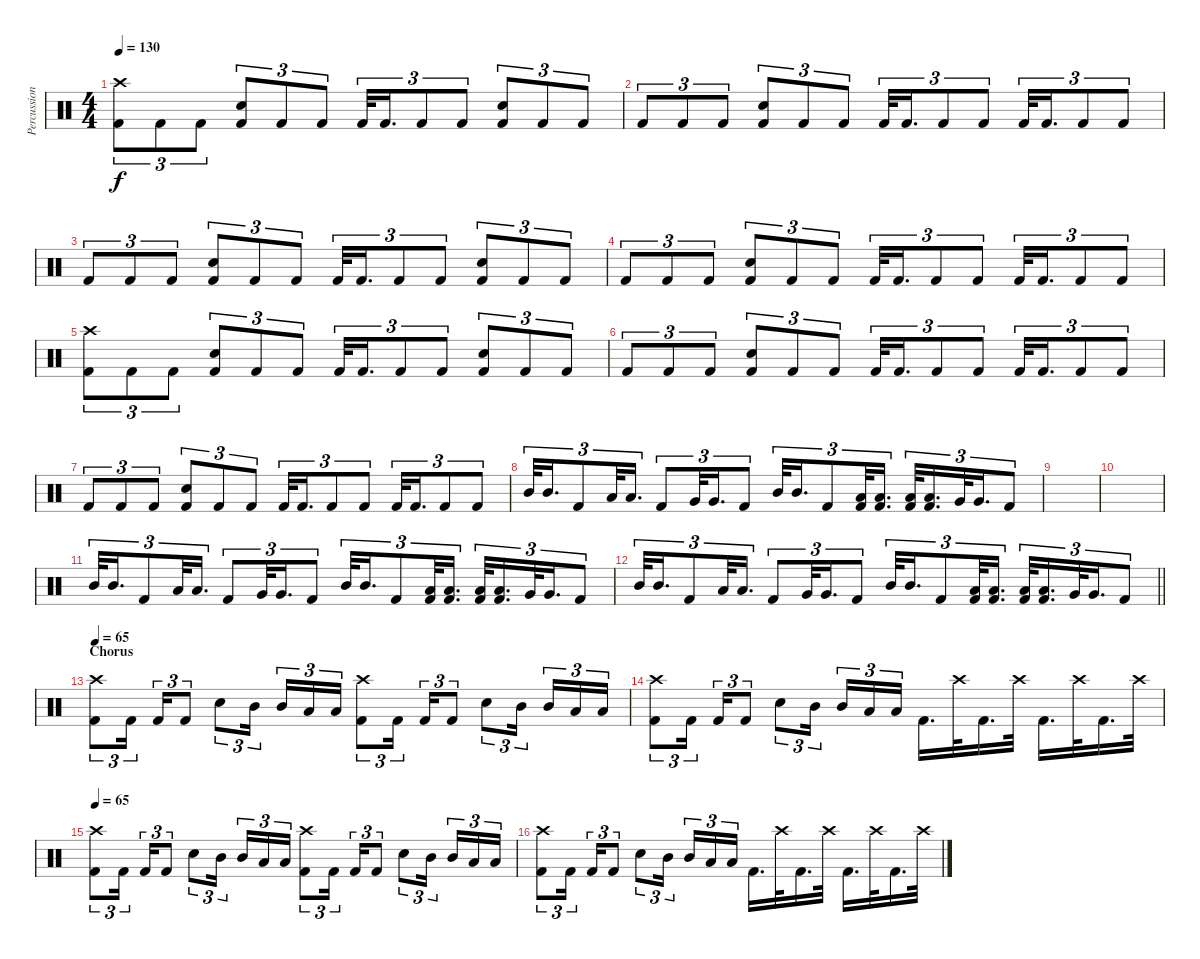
\track ("Percussions" "Percussion") {instrument percussion}
\staff {score}
\articulation defaults
\ts (4 4)
\tempo 130
\clef neutral
\ks c
("Crash high (hit)" "Kick (hit) 2").8{tu (3 2) dy f} "Kick (hit) 2".8{tu (3 2)} "Kick (hit) 2".8{tu (3 2)} ("Electric Snare (hit)" "Kick (hit) 2").8{tu (3 2)} "Kick (hit) 2".8{tu (3 2)} "Kick (hit) 2".8{tu (3 2)} "Kick (hit) 2".32{tu (3 2)} "Kick (hit) 2".16{d tu (3 2)} "Kick (hit) 2".8{tu (3 2)} "Kick (hit) 2".8{tu (3 2)} ("Electric Snare (hit)" "Kick (hit) 2").8{tu (3 2)} "Kick (hit) 2".8{tu (3 2)} "Kick (hit) 2".8{tu (3 2)} |
"Kick (hit) 2".8{tu (3 2)} "Kick (hit) 2".8{tu (3 2)} "Kick (hit) 2".8{tu (3 2)} ("Electric Snare (hit)" "Kick (hit) 2").8{tu (3 2)} "Kick (hit) 2".8{tu (3 2)} "Kick (hit) 2".8{tu (3 2)} "Kick (hit) 2".32{tu (3 2)} "Kick (hit) 2".16{d tu (3 2)} "Kick (hit) 2".8{tu (3 2)} "Kick (hit) 2".8{tu (3 2)} "Kick (hit) 2".32{tu (3 2)} "Kick (hit) 2".16{d tu (3 2)} "Kick (hit) 2".8{tu (3 2)} "Kick (hit) 2".8{tu (3 2)} |
"Kick (hit) 2".8{tu (3 2)} "Kick (hit) 2".8{tu (3 2)} "Kick (hit) 2".8{tu (3 2)} ("Electric Snare (hit)" "Kick (hit) 2").8{tu (3 2)} "Kick (hit) 2".8{tu (3 2)} "Kick (hit) 2".8{tu (3 2)} "Kick (hit) 2".32{tu (3 2)} "Kick (hit) 2".16{d tu (3 2)} "Kick (hit) 2".8{tu (3 2)} "Kick (hit) 2".8{tu (3 2)} ("Electric Snare (hit)" "Kick (hit) 2").8{tu (3 2)} "Kick (hit) 2".8{tu (3 2)} "Kick (hit) 2".8{tu (3 2)} |
"Kick (hit) 2".8{tu (3 2)} "Kick (hit) 2".8{tu (3 2)} "Kick (hit) 2".8{tu (3 2)} ("Electric Snare (hit)" "Kick (hit) 2").8{tu (3 2)} "Kick (hit) 2".8{tu (3 2)} "Kick (hit) 2".8{tu (3 2)} "Kick (hit) 2".32{tu (3 2)} "Kick (hit) 2".16{d tu (3 2)} "Kick (hit) 2".8{tu (3 2)} "Kick (hit) 2".8{tu (3 2)} "Kick (hit) 2".32{tu (3 2)} "Kick (hit) 2".16{d tu (3 2)} "Kick (hit) 2".8{tu (3 2)} "Kick (hit) 2".8{tu (3 2)} |
("Crash high (hit)" "Kick (hit) 2").8{tu (3 2)} "Kick (hit) 2".8{tu (3 2)} "Kick (hit) 2".8{tu (3 2)} ("Electric Snare (hit)" "Kick (hit) 2").8{tu (3 2)} "Kick (hit) 2".8{tu (3 2)} "Kick (hit) 2".8{tu (3 2)} "Kick (hit) 2".32{tu (3 2)} "Kick (hit) 2".16{d tu (3 2)} "Kick (hit) 2".8{tu (3 2)} "Kick (hit) 2".8{tu (3 2)} ("Electric Snare (hit)" "Kick (hit) 2").8{tu (3 2)} "Kick (hit) 2".8{tu (3 2)} "Kick (hit) 2".8{tu (3 2)} |
"Kick (hit) 2".8{tu (3 2)} "Kick (hit) 2".8{tu (3 2)} "Kick (hit) 2".8{tu (3 2)} ("Electric Snare (hit)" "Kick (hit) 2").8{tu (3 2)} "Kick (hit) 2".8{tu (3 2)} "Kick (hit) 2".8{tu (3 2)} "Kick (hit) 2".32{tu (3 2)} "Kick (hit) 2".16{d tu (3 2)} "Kick (hit) 2".8{tu (3 2)} "Kick (hit) 2".8{tu (3 2)} "Kick (hit) 2".32{tu (3 2)} "Kick (hit) 2".16{d tu (3 2)} "Kick (hit) 2".8{tu (3 2)} "Kick (hit) 2".8{tu (3 2)} |
"Kick (hit) 2".8{tu (3 2)} "Kick (hit) 2".8{tu (3 2)} "Kick (hit) 2".8{tu (3 2)} ("Electric Snare (hit)" "Kick (hit) 2").8{tu (3 2)} "Kick (hit) 2".8{tu (3 2)} "Kick (hit) 2".8{tu (3 2)} "Kick (hit) 2".32{tu (3 2)} "Kick (hit) 2".16{d tu (3 2)} "Kick (hit) 2".8{tu (3 2)} "Kick (hit) 2".8{tu (3 2)} "Kick (hit) 2".32{tu (3 2)} "Kick (hit) 2".16{d tu (3 2)} "Kick (hit) 2".8{tu (3 2)} "Kick (hit) 2".8{tu (3 2)} |
"Mid Tom (hit)".32{tu (3 2)} "Mid Tom (hit)".16{d tu (3 2)} "Kick (hit) 2".8{tu (3 2)} "Low Tom (hit)".32{tu (3 2)} "Low Tom (hit)".16{d tu (3 2)} "Kick (hit) 2".8{tu (3 2)} "Very Low Tom (hit)".32{tu (3 2)} "Very Low Tom (hit)".16{d tu (3 2)} "Kick (hit) 2".8{tu (3 2)} "Mid Tom (hit)".32{tu (3 2)} "Mid Tom (hit)".16{d tu (3 2)} "Kick (hit) 2".8{tu (3 2)} ("Low Tom (hit)" "Kick (hit) 2").32{tu (3 2)} ("Low Tom (hit)" "Kick (hit) 2").16{d tu (3 2)} ("Low Tom (hit)" "Kick (hit) 2").32{tu (3 2)} ("Low Tom (hit)" "Kick (hit) 2").16{d tu (3 2)} "Very Low Tom (hit)".32{tu (3 2)} "Very Low Tom (hit)".16{d tu (3 2)} "Kick (hit) 2".8{tu (3 2)} |
|
|
"Mid Tom (hit)".32{tu (3 2)} "Mid Tom (hit)".16{d tu (3 2)} "Kick (hit) 2".8{tu (3 2)} "Low Tom (hit)".32{tu (3 2)} "Low Tom (hit)".16{d tu (3 2)} "Kick (hit) 2".8{tu (3 2)} "Very Low Tom (hit)".32{tu (3 2)} "Very Low Tom (hit)".16{d tu (3 2)} "Kick (hit) 2".8{tu (3 2)} "Mid Tom (hit)".32{tu (3 2)} "Mid Tom (hit)".16{d tu (3 2)} "Kick (hit) 2".8{tu (3 2)} ("Low Tom (hit)" "Kick (hit) 2").32{tu (3 2)} ("Low Tom (hit)" "Kick (hit) 2").16{d tu (3 2)} ("Low Tom (hit)" "Kick (hit) 2").32{tu (3 2)} ("Low Tom (hit)" "Kick (hit) 2").16{d tu (3 2)} "Very Low Tom (hit)".32{tu (3 2)} "Very Low Tom (hit)".16{d tu (3 2)} "Kick (hit) 2".8{tu (3 2)} |
\barLineRight lightlight "Mid Tom (hit)".32{tu (3 2)} "Mid Tom (hit)".16{d tu (3 2)} "Kick (hit) 2".8{tu (3 2)} "Low Tom (hit)".32{tu (3 2)} "Low Tom (hit)".16{d tu (3 2)} "Kick (hit) 2".8{tu (3 2)} "Very Low Tom (hit)".32{tu (3 2)} "Very Low Tom (hit)".16{d tu (3 2)} "Kick (hit) 2".8{tu (3 2)} "Mid Tom (hit)".32{tu (3 2)} "Mid Tom (hit)".16{d tu (3 2)} "Kick (hit) 2".8{tu (3 2)}
("Low Tom (hit)" "Kick (hit) 2").32{tu (3 2)} ("Low Tom (hit)" "Kick (hit) 2").16{d tu (3 2)} ("Low Tom (hit)" "Kick (hit) 2").32{tu (3 2)} ("Low Tom (hit)" "Kick (hit) 2").16{d tu (3 2)} "Very Low Tom (hit)".32{tu (3 2)} "Very Low Tom (hit)".16{d tu (3 2)} "Kick (hit) 2".8{tu (3 2)} |
\section ("" "Chorus")
\tempo 65
("Crash high (hit)" "Kick (hit) 2").8{tu (3 2)} "Kick (hit) 2".16{tu (3 2) beam splitsecondary} "Kick (hit) 2".16{tu (3 2)} "Kick (hit) 2".8{tu (3 2)} "Electric Snare (hit)".8{tu (3 2)} "Mid Tom (hit)".16{tu (3 2) beam splitsecondary} "Mid Tom (hit)".16{tu (3 2)} "Low Tom (hit)".16{tu (3 2)} "Low Tom (hit)".16{tu (3 2)} ("Crash high (hit)" "Kick (hit) 2").8{tu (3 2)} "Kick (hit) 2".16{tu (3 2) beam splitsecondary} "Kick (hit) 2".16{tu (3 2)} "Kick (hit) 2".8{tu (3 2)} "Electric Snare (hit)".8{tu (3 2)} "Mid Tom (hit)".16{tu (3 2) beam splitsecondary} "Mid Tom (hit)".16{tu (3 2)} "Low Tom (hit)".16{tu (3 2)} "Low Tom (hit)".16{tu (3 2)} |
("Crash high (hit)" "Kick (hit) 2").8{tu (3 2)} "Kick (hit) 2".16{tu (3 2) beam splitsecondary} "Kick (hit) 2".16{tu (3 2)} "Kick (hit) 2".8{tu (3 2)} "Electric Snare (hit)".8{tu (3 2)} "Mid Tom (hit)".16{tu (3 2) beam splitsecondary} "Mid Tom (hit)".16{tu (3 2)} "Low Tom (hit)".16{tu (3 2)} "Low Tom (hit)".16{tu (3 2)} "Kick (hit) 2".16{d} "Crash high (hit)".32 "Kick (hit) 2".16{d} "Crash high (hit)".32 "Kick (hit) 2".16{d} "Crash high (hit)".32 "Kick (hit) 2".16{d} "Crash high (hit)".32 |
\tempo 65
("Crash high (hit)" "Kick (hit) 2").8{tu (3 2)} "Kick (hit) 2".16{tu (3 2) beam splitsecondary} "Kick (hit) 2".16{tu (3 2)} "Kick (hit) 2".8{tu (3 2)} "Electric Snare (hit)".8{tu (3 2)} "Mid Tom (hit)".16{tu (3 2) beam splitsecondary} "Mid Tom (hit)".16{tu (3 2)} "Low Tom (hit)".16{tu (3 2)} "Low Tom (hit)".16{tu (3 2)} ("Crash high (hit)" "Kick (hit) 2").8{tu (3 2)} "Kick (hit) 2".16{tu (3 2) beam splitsecondary} "Kick (hit) 2".16{tu (3 2)} "Kick (hit) 2".8{tu (3 2)} "Electric Snare (hit)".8{tu (3 2)} "Mid Tom (hit)".16{tu (3 2) beam splitsecondary} "Mid Tom (hit)".16{tu (3 2)} "Low Tom (hit)".16{tu (3 2)} "Low Tom (hit)".16{tu (3 2)} |
("Crash high (hit)" "Kick (hit) 2").8{tu (3 2)} "Kick (hit) 2".16{tu (3 2) beam splitsecondary} "Kick (hit) 2".16{tu (3 2)} "Kick (hit) 2".8{tu (3 2)} "Electric Snare (hit)".8{tu (3 2)} "Mid Tom (hit)".16{tu (3 2) beam splitsecondary} "Mid Tom (hit)".16{tu (3 2)} "Low Tom (hit)".16{tu (3 2)} "Low Tom (hit)".16{tu (3 2)} "Kick (hit) 2".16{d} "Crash high (hit)".32 "Kick (hit) 2".16{d} "Crash high (hit)".32 "Kick (hit) 2".16{d} "Crash high (hit)".32 "Kick (hit) 2".16{d} "Crash high (hit)".32
